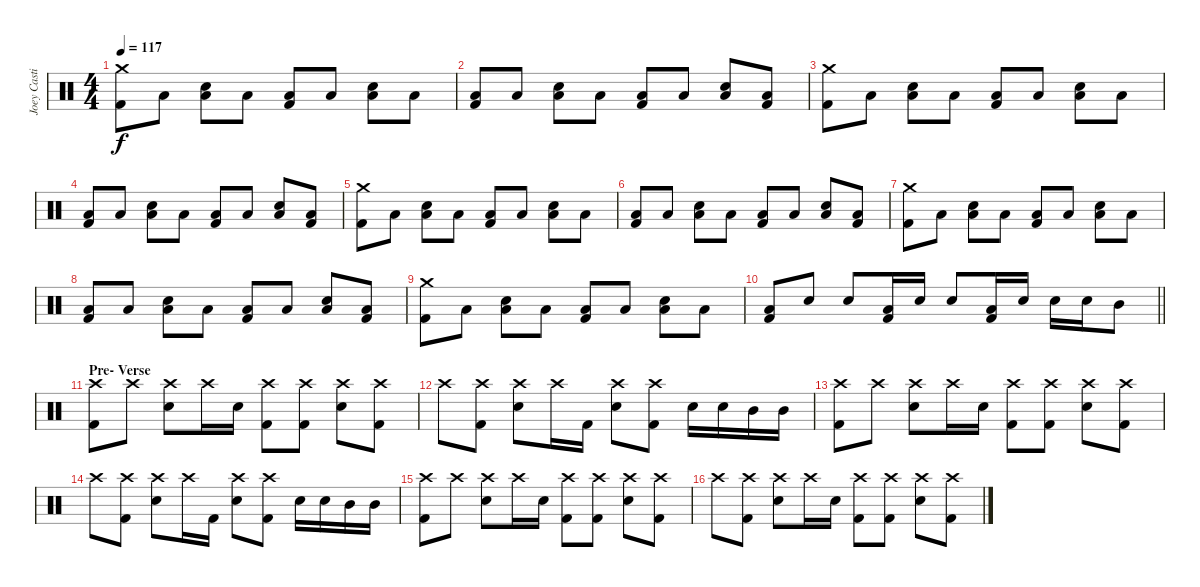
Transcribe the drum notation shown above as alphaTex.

\track ("Joey Castillo" "Joey Casti") {instrument percussion}
\staff {score}
\articulation defaults
\ts (4 4)
\tempo 117
\clef neutral
\ks c
("Crash medium (hit)" "Kick (hit) 2").8{dy f} "Low Floor Tom (hit)".8 ("Low Floor Tom (hit)" "Snare (hit) 2").8 "Low Floor Tom (hit)".8 ("Low Floor Tom (hit)" "Kick (hit) 2").8 "Low Floor Tom (hit)".8 ("Low Floor Tom (hit)" "Snare (hit) 2").8 "Low Floor Tom (hit)".8 |
("Low Floor Tom (hit)" "Kick (hit) 2").8 "Low Floor Tom (hit)".8 ("Low Floor Tom (hit)" "Snare (hit) 2").8 "Low Floor Tom (hit)".8 ("Low Floor Tom (hit)" "Kick (hit) 2").8 "Low Floor Tom (hit)".8 ("Low Floor Tom (hit)" "Snare (hit) 2").8 ("Low Floor Tom (hit)" "Kick (hit) 2").8 |
("Crash medium (hit)" "Kick (hit) 2").8 "Low Floor Tom (hit)".8 ("Low Floor Tom (hit)" "Snare (hit) 2").8 "Low Floor Tom (hit)".8 ("Low Floor Tom (hit)" "Kick (hit) 2").8 "Low Floor Tom (hit)".8 ("Low Floor Tom (hit)" "Snare (hit) 2").8 "Low Floor Tom (hit)".8 |
("Low Floor Tom (hit)" "Kick (hit) 2").8 "Low Floor Tom (hit)".8 ("Low Floor Tom (hit)" "Snare (hit) 2").8 "Low Floor Tom (hit)".8 ("Low Floor Tom (hit)" "Kick (hit) 2").8 "Low Floor Tom (hit)".8 ("Low Floor Tom (hit)" "Snare (hit) 2").8 ("Low Floor Tom (hit)" "Kick (hit) 2").8 |
("Crash medium (hit)" "Kick (hit) 2").8 "Low Floor Tom (hit)".8 ("Low Floor Tom (hit)" "Snare (hit) 2").8 "Low Floor Tom (hit)".8 ("Low Floor Tom (hit)" "Kick (hit) 2").8 "Low Floor Tom (hit)".8 ("Low Floor Tom (hit)" "Snare (hit) 2").8 "Low Floor Tom (hit)".8 |
("Low Floor Tom (hit)" "Kick (hit) 2").8 "Low Floor Tom (hit)".8 ("Low Floor Tom (hit)" "Snare (hit) 2").8 "Low Floor Tom (hit)".8 ("Low Floor Tom (hit)" "Kick (hit) 2").8 "Low Floor Tom (hit)".8 ("Low Floor Tom (hit)" "Snare (hit) 2").8 ("Low Floor Tom (hit)" "Kick (hit) 2").8 |
("Crash medium (hit)" "Kick (hit) 2").8 "Low Floor Tom (hit)".8 ("Low Floor Tom (hit)" "Snare (hit) 2").8 "Low Floor Tom (hit)".8 ("Low Floor Tom (hit)" "Kick (hit) 2").8 "Low Floor Tom (hit)".8 ("Low Floor Tom (hit)" "Snare (hit) 2").8 "Low Floor Tom (hit)".8 |
("Low Floor Tom (hit)" "Kick (hit) 2").8 "Low Floor Tom (hit)".8 ("Low Floor Tom (hit)" "Snare (hit) 2").8 "Low Floor Tom (hit)".8 ("Low Floor Tom (hit)" "Kick (hit) 2").8 "Low Floor Tom (hit)".8 ("Low Floor Tom (hit)" "Snare (hit) 2").8 ("Low Floor Tom (hit)" "Kick (hit) 2").8 |
("Crash medium (hit)" "Kick (hit) 2").8 "Low Floor Tom (hit)".8 ("Low Floor Tom (hit)" "Snare (hit) 2").8 "Low Floor Tom (hit)".8 ("Low Floor Tom (hit)" "Kick (hit) 2").8 "Low Floor Tom (hit)".8 ("Low Floor Tom (hit)" "Snare (hit) 2").8 "Low Floor Tom (hit)".8 |
\barLineRight lightlight
("Low Floor Tom (hit)" "Kick (hit) 2").8 "Snare (hit) 2".8 "Snare (hit) 2".8 ("Low Floor Tom (hit)" "Kick (hit) 2").16 "Snare (hit) 2".16 "Snare (hit) 2".8 ("Low Floor Tom (hit)" "Kick (hit) 2").16 "Snare (hit) 2".16 "Snare (hit) 2".16 "Snare (hit) 2".16 "Mid Tom (hit)".8 |
\section ("" "Pre- Verse")
("Crash high (hit)" "Kick (hit) 2").8 "Crash high (hit)".8 ("Crash high (hit)" "Snare (hit) 2").8 "Crash high (hit)".16 "Snare (hit) 2".16 ("Crash high (hit)" "Kick (hit) 2").8 ("Crash high (hit)" "Kick (hit) 2").8 ("Crash high (hit)" "Snare (hit) 2").8 ("Crash high (hit)" "Kick (hit) 2").8 |
"Crash high (hit)".8 ("Crash high (hit)" "Kick (hit) 2").8 ("Crash high (hit)" "Snare (hit) 2").8 "Crash high (hit)".16 "Kick (hit) 2".16 ("Crash high (hit)" "Snare (hit) 2").8 ("Crash high (hit)" "Kick (hit) 2").8 "Snare (hit) 2".16 "Snare (hit) 2".16 "Mid Tom (hit)".16 "Mid Tom (hit)".16 |
("Crash high (hit)" "Kick (hit) 2").8 "Crash high (hit)".8 ("Crash high (hit)" "Snare (hit) 2").8 "Crash high (hit)".16 "Snare (hit) 2".16 ("Crash high (hit)" "Kick (hit) 2").8 ("Crash high (hit)" "Kick (hit) 2").8 ("Crash high (hit)" "Snare (hit) 2").8 ("Crash high (hit)" "Kick (hit) 2").8 |
"Crash high (hit)".8 ("Crash high (hit)" "Kick (hit) 2").8 ("Crash high (hit)" "Snare (hit) 2").8 "Crash high (hit)".16 "Kick (hit) 2".16 ("Crash high (hit)" "Snare (hit) 2").8 ("Crash high (hit)" "Kick (hit) 2").8 "Snare (hit) 2".16 "Snare (hit) 2".16 "Mid Tom (hit)".16 "Mid Tom (hit)".16 |
("Crash high (hit)" "Kick (hit) 2").8 "Crash high (hit)".8 ("Crash high (hit)" "Snare (hit) 2").8 "Crash high (hit)".16 "Snare (hit) 2".16 ("Crash high (hit)" "Kick (hit) 2").8 ("Crash high (hit)" "Kick (hit) 2").8 ("Crash high (hit)" "Snare (hit) 2").8 ("Crash high (hit)" "Kick (hit) 2").8 |
"Crash high (hit)".8 ("Crash high (hit)" "Kick (hit) 2").8 ("Crash high (hit)" "Snare (hit) 2").8 "Crash high (hit)".16 "Snare (hit) 2".16 ("Crash high (hit)" "Kick (hit) 2").8 ("Crash high (hit)" "Kick (hit) 2").8 ("Crash high (hit)" "Snare (hit) 2").8 ("Crash high (hit)" "Kick (hit) 2").8
